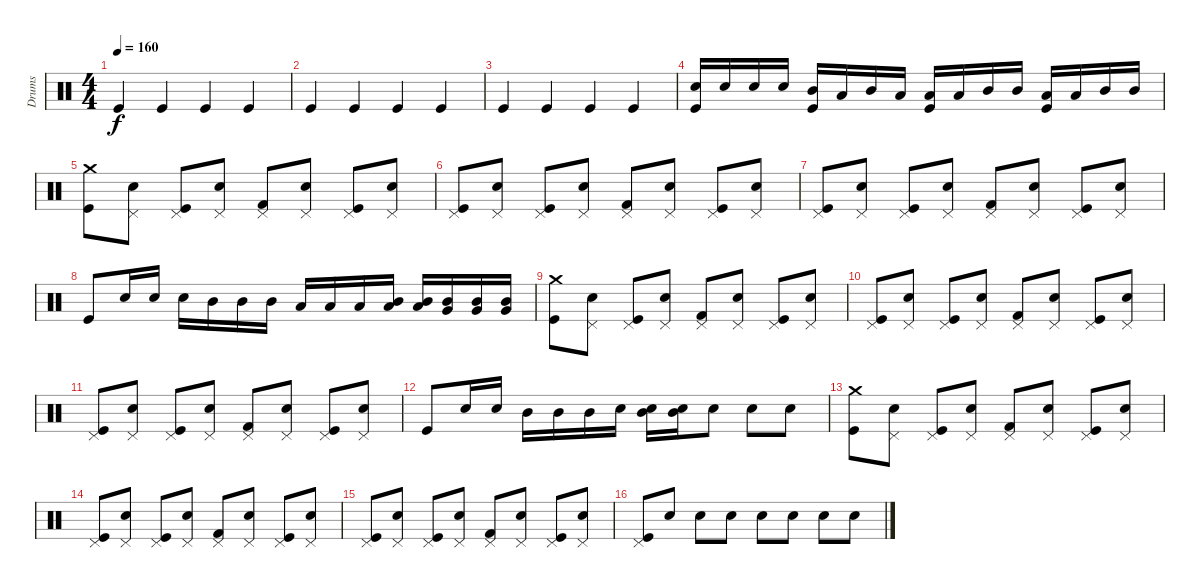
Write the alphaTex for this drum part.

\track ("Drums" "Drums") {instrument percussion}
\staff {score}
\articulation defaults
\ts (4 4)
\tempo 160
\clef neutral
\ks c "Kick (hit)".4{dy f} "Kick (hit)".4 "Kick (hit)".4 "Kick (hit)".4
|
"Kick (hit)".4 "Kick (hit)".4 "Kick (hit)".4 "Kick (hit)".4 |
"Kick (hit)".4 "Kick (hit)".4 "Kick (hit)".4 "Kick (hit)".4 |
("Electric Snare (hit)" "Kick (hit)").16 "Electric Snare (hit)".16 "Electric Snare (hit)".16 "Electric Snare (hit)".16 ("Mid Tom (hit)" "Kick (hit)").16 "Low Tom (hit)".16 "Mid Tom (hit)".16 "Low Tom (hit)".16 ("Low Tom (hit)" "Kick (hit)").16 "Low Tom (hit)".16 "Mid Tom (hit)".16 "Mid Tom (hit)".16 ("Low Tom (hit)" "Kick (hit)").16 "Low Tom (hit)".16 "Mid Tom (hit)".16 "Mid Tom (hit)".16 |
("Crash medium (hit)" "Kick (hit)").8 ("Pedal Hi-Hat (hit)" "Electric Snare (hit)").8 ("Pedal Hi-Hat (hit)" "Kick (hit)").8 ("Pedal Hi-Hat (hit)" "Electric Snare (hit)").8 ("Pedal Hi-Hat (hit)" "Kick (hit) 2").8 ("Pedal Hi-Hat (hit)" "Electric Snare (hit)").8 ("Pedal Hi-Hat (hit)" "Kick (hit)").8 ("Pedal Hi-Hat (hit)" "Electric Snare (hit)").8 |
("Pedal Hi-Hat (hit)" "Kick (hit)").8 ("Pedal Hi-Hat (hit)" "Electric Snare (hit)").8 ("Pedal Hi-Hat (hit)" "Kick (hit)").8 ("Pedal Hi-Hat (hit)" "Electric Snare (hit)").8 ("Pedal Hi-Hat (hit)" "Kick (hit) 2").8 ("Pedal Hi-Hat (hit)" "Electric Snare (hit)").8 ("Pedal Hi-Hat (hit)" "Kick (hit)").8 ("Pedal Hi-Hat (hit)" "Electric Snare (hit)").8 |
("Pedal Hi-Hat (hit)" "Kick (hit)").8 ("Pedal Hi-Hat (hit)" "Electric Snare (hit)").8 ("Pedal Hi-Hat (hit)" "Kick (hit)").8 ("Pedal Hi-Hat (hit)" "Electric Snare (hit)").8 ("Pedal Hi-Hat (hit)" "Kick (hit) 2").8 ("Pedal Hi-Hat (hit)" "Electric Snare (hit)").8 ("Pedal Hi-Hat (hit)" "Kick (hit)").8 ("Pedal Hi-Hat (hit)" "Electric Snare (hit)").8 |
"Kick (hit)".8 "Electric Snare (hit)".16 "Electric Snare (hit)".16 "Electric Snare (hit)".16 "Mid Tom (hit)".16 "Mid Tom (hit)".16 "Mid Tom (hit)".16 "Low Tom (hit)".16 "Low Tom (hit)".16 "Low Tom (hit)".16 ("Low Tom (hit)" "Mid Tom (hit)").16 ("Low Tom (hit)" "Mid Tom (hit)").16 ("Very Low Tom (hit)" "Mid Tom (hit)").16 ("Very Low Tom (hit)" "Mid Tom (hit)").16 ("Very Low Tom (hit)" "Mid Tom (hit)").16 |
("Crash medium (hit)" "Kick (hit)").8 ("Pedal Hi-Hat (hit)" "Electric Snare (hit)").8 ("Pedal Hi-Hat (hit)" "Kick (hit)").8 ("Pedal Hi-Hat (hit)" "Electric Snare (hit)").8 ("Pedal Hi-Hat (hit)" "Kick (hit) 2").8 ("Pedal Hi-Hat (hit)" "Electric Snare (hit)").8 ("Pedal Hi-Hat (hit)" "Kick (hit)").8 ("Pedal Hi-Hat (hit)" "Electric Snare (hit)").8 |
("Pedal Hi-Hat (hit)" "Kick (hit)").8 ("Pedal Hi-Hat (hit)" "Electric Snare (hit)").8 ("Pedal Hi-Hat (hit)" "Kick (hit)").8 ("Pedal Hi-Hat (hit)" "Electric Snare (hit)").8 ("Pedal Hi-Hat (hit)" "Kick (hit) 2").8 ("Pedal Hi-Hat (hit)" "Electric Snare (hit)").8 ("Pedal Hi-Hat (hit)" "Kick (hit)").8 ("Pedal Hi-Hat (hit)" "Electric Snare (hit)").8 |
("Pedal Hi-Hat (hit)" "Kick (hit)").8 ("Pedal Hi-Hat (hit)" "Electric Snare (hit)").8 ("Pedal Hi-Hat (hit)" "Kick (hit)").8 ("Pedal Hi-Hat (hit)" "Electric Snare (hit)").8 ("Pedal Hi-Hat (hit)" "Kick (hit) 2").8 ("Pedal Hi-Hat (hit)" "Electric Snare (hit)").8 ("Pedal Hi-Hat (hit)" "Kick (hit)").8 ("Pedal Hi-Hat (hit)" "Electric Snare (hit)").8 |
"Kick (hit)".8 "Electric Snare (hit)".16 "Electric Snare (hit)".16 "Mid Tom (hit)".16 "Mid Tom (hit)".16 "Mid Tom (hit)".16 "Electric Snare (hit)".16 ("Mid Tom (hit)" "Electric Snare (hit)").16 ("Electric Snare (hit)" "Mid Tom (hit)").16 "Electric Snare (hit)".8 "Electric Snare (hit)".8 "Electric Snare (hit)".8 |
("Crash medium (hit)" "Kick (hit)").8 ("Pedal Hi-Hat (hit)" "Electric Snare (hit)").8 ("Pedal Hi-Hat (hit)" "Kick (hit)").8 ("Pedal Hi-Hat (hit)" "Electric Snare (hit)").8 ("Pedal Hi-Hat (hit)" "Kick (hit) 2").8 ("Pedal Hi-Hat (hit)" "Electric Snare (hit)").8 ("Pedal Hi-Hat (hit)" "Kick (hit)").8 ("Pedal Hi-Hat (hit)" "Electric Snare (hit)").8 |
("Pedal Hi-Hat (hit)" "Kick (hit)").8 ("Pedal Hi-Hat (hit)" "Electric Snare (hit)").8 ("Pedal Hi-Hat (hit)" "Kick (hit)").8 ("Pedal Hi-Hat (hit)" "Electric Snare (hit)").8 ("Pedal Hi-Hat (hit)" "Kick (hit) 2").8 ("Pedal Hi-Hat (hit)" "Electric Snare (hit)").8 ("Pedal Hi-Hat (hit)" "Kick (hit)").8 ("Pedal Hi-Hat (hit)" "Electric Snare (hit)").8 |
("Pedal Hi-Hat (hit)" "Kick (hit)").8 ("Pedal Hi-Hat (hit)" "Electric Snare (hit)").8 ("Pedal Hi-Hat (hit)" "Kick (hit)").8 ("Pedal Hi-Hat (hit)" "Electric Snare (hit)").8 ("Pedal Hi-Hat (hit)" "Kick (hit) 2").8 ("Pedal Hi-Hat (hit)" "Electric Snare (hit)").8 ("Pedal Hi-Hat (hit)" "Kick (hit)").8 ("Pedal Hi-Hat (hit)" "Electric Snare (hit)").8 |
("Pedal Hi-Hat (hit)" "Kick (hit)").8 "Electric Snare (hit)".8 "Electric Snare (hit)".8 "Electric Snare (hit)".8 "Electric Snare (hit)".8 "Electric Snare (hit)".8 "Electric Snare (hit)".8 "Electric Snare (hit)".8
